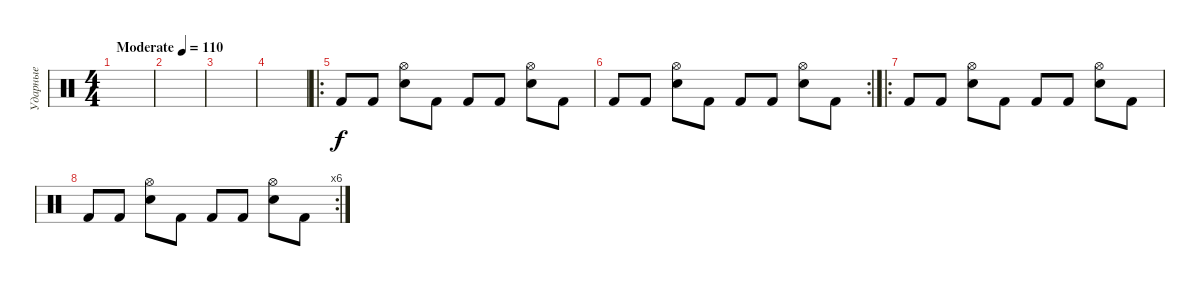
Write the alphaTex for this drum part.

\track ("Ударные" "Ударные") {instrument percussion}
\staff {score}
\articulation defaults
\ts (4 4)
\tempo (110 "Moderate")
\clef neutral
\ks c
|
|
|
|
\ro "Kick (hit) 2".8 "Kick (hit) 2".8
("Hi-Hat (open)" "Electric Snare (hit)").8 "Kick (hit) 2".8 "Kick (hit) 2".8 "Kick (hit) 2".8 ("Hi-Hat (open)" "Electric Snare (hit)").8 "Kick (hit) 2".8 |
\rc 2 "Kick (hit) 2".8 "Kick (hit) 2".8
("Hi-Hat (open)" "Electric Snare (hit)").8 "Kick (hit) 2".8 "Kick (hit) 2".8 "Kick (hit) 2".8 ("Hi-Hat (open)" "Electric Snare (hit)").8 "Kick (hit) 2".8 |
\ro "Kick (hit) 2".8 "Kick (hit) 2".8
("Hi-Hat (open)" "Electric Snare (hit)").8 "Kick (hit) 2".8 "Kick (hit) 2".8 "Kick (hit) 2".8 ("Hi-Hat (open)" "Electric Snare (hit)").8 "Kick (hit) 2".8 |
\rc 6 "Kick (hit) 2".8 "Kick (hit) 2".8
("Hi-Hat (open)" "Electric Snare (hit)").8 "Kick (hit) 2".8 "Kick (hit) 2".8 "Kick (hit) 2".8 ("Hi-Hat (open)" "Electric Snare (hit)").8 "Kick (hit) 2".8
